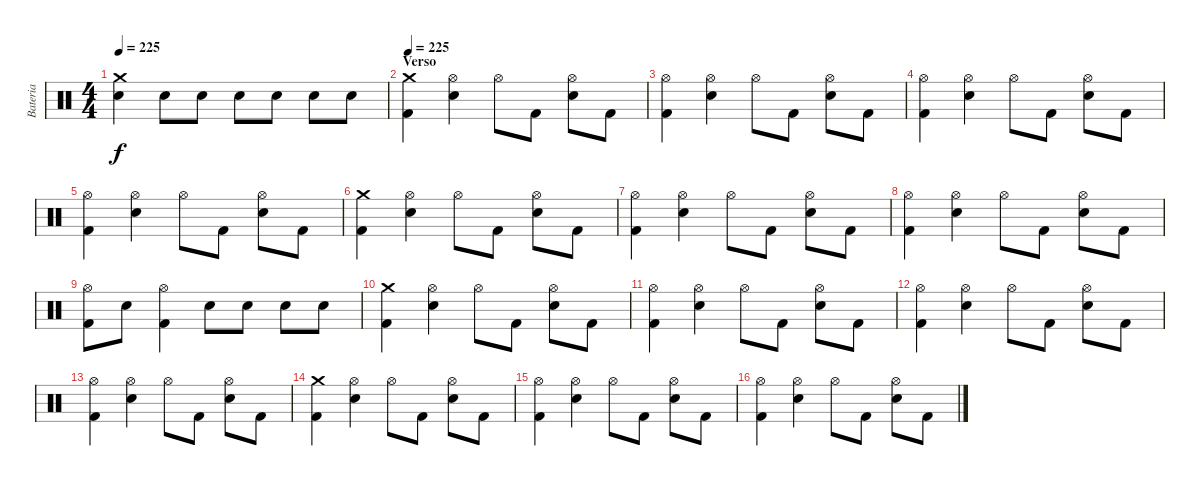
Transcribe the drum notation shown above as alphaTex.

\track ("Bateria" "Bateria") {instrument percussion}
\staff {score}
\articulation defaults
\ts (4 4)
\tempo 225
\clef neutral
\ks c
("Snare (hit) 2" "Crash medium (hit)").4{dy f} "Snare (hit) 2".8 "Snare (hit) 2".8 "Snare (hit) 2".8 "Snare (hit) 2".8 "Snare (hit) 2".8 "Snare (hit) 2".8 |
\section ("" "Verso")
\tempo 225
("Crash medium (hit)" "Kick (hit) 2").4 ("Snare (hit) 2" "Hi-Hat (open)").4 "Hi-Hat (open)".8 "Kick (hit) 2".8 ("Hi-Hat (open)" "Snare (hit) 2").8 "Kick (hit) 2".8 |
("Hi-Hat (open)" "Kick (hit) 2").4 ("Snare (hit) 2" "Hi-Hat (open)").4 "Hi-Hat (open)".8 "Kick (hit) 2".8 ("Hi-Hat (open)" "Snare (hit) 2").8 "Kick (hit) 2".8 |
("Hi-Hat (open)" "Kick (hit) 2").4 ("Snare (hit) 2" "Hi-Hat (open)").4 "Hi-Hat (open)".8 "Kick (hit) 2".8 ("Hi-Hat (open)" "Snare (hit) 2").8 "Kick (hit) 2".8 |
("Hi-Hat (open)" "Kick (hit) 2").4 ("Snare (hit) 2" "Hi-Hat (open)").4 "Hi-Hat (open)".8 "Kick (hit) 2".8 ("Hi-Hat (open)" "Snare (hit) 2").8 "Kick (hit) 2".8 |
("Crash medium (hit)" "Kick (hit) 2").4 ("Snare (hit) 2" "Hi-Hat (open)").4 "Hi-Hat (open)".8 "Kick (hit) 2".8 ("Hi-Hat (open)" "Snare (hit) 2").8 "Kick (hit) 2".8 |
("Hi-Hat (open)" "Kick (hit) 2").4 ("Snare (hit) 2" "Hi-Hat (open)").4 "Hi-Hat (open)".8 "Kick (hit) 2".8 ("Hi-Hat (open)" "Snare (hit) 2").8 "Kick (hit) 2".8 |
("Hi-Hat (open)" "Kick (hit) 2").4 ("Snare (hit) 2" "Hi-Hat (open)").4 "Hi-Hat (open)".8 "Kick (hit) 2".8 ("Hi-Hat (open)" "Snare (hit) 2").8 "Kick (hit) 2".8 |
("Hi-Hat (open)" "Kick (hit) 2").8 "Snare (hit) 2".8 ("Kick (hit) 2" "Hi-Hat (open)").4 "Snare (hit) 2".8 "Snare (hit) 2".8 "Snare (hit) 2".8 "Snare (hit) 2".8 |
("Crash medium (hit)" "Kick (hit) 2").4 ("Snare (hit) 2" "Hi-Hat (open)").4 "Hi-Hat (open)".8 "Kick (hit) 2".8 ("Hi-Hat (open)" "Snare (hit) 2").8 "Kick (hit) 2".8 |
("Hi-Hat (open)" "Kick (hit) 2").4 ("Snare (hit) 2" "Hi-Hat (open)").4 "Hi-Hat (open)".8 "Kick (hit) 2".8 ("Hi-Hat (open)" "Snare (hit) 2").8 "Kick (hit) 2".8 |
("Hi-Hat (open)" "Kick (hit) 2").4 ("Snare (hit) 2" "Hi-Hat (open)").4 "Hi-Hat (open)".8 "Kick (hit) 2".8 ("Hi-Hat (open)" "Snare (hit) 2").8 "Kick (hit) 2".8 |
("Hi-Hat (open)" "Kick (hit) 2").4 ("Snare (hit) 2" "Hi-Hat (open)").4 "Hi-Hat (open)".8 "Kick (hit) 2".8 ("Hi-Hat (open)" "Snare (hit) 2").8 "Kick (hit) 2".8 |
("Crash medium (hit)" "Kick (hit) 2").4 ("Snare (hit) 2" "Hi-Hat (open)").4 "Hi-Hat (open)".8 "Kick (hit) 2".8 ("Hi-Hat (open)" "Snare (hit) 2").8 "Kick (hit) 2".8 |
("Hi-Hat (open)" "Kick (hit) 2").4 ("Snare (hit) 2" "Hi-Hat (open)").4 "Hi-Hat (open)".8 "Kick (hit) 2".8 ("Hi-Hat (open)" "Snare (hit) 2").8 "Kick (hit) 2".8 |
("Hi-Hat (open)" "Kick (hit) 2").4 ("Snare (hit) 2" "Hi-Hat (open)").4 "Hi-Hat (open)".8 "Kick (hit) 2".8 ("Hi-Hat (open)" "Snare (hit) 2").8 "Kick (hit) 2".8
